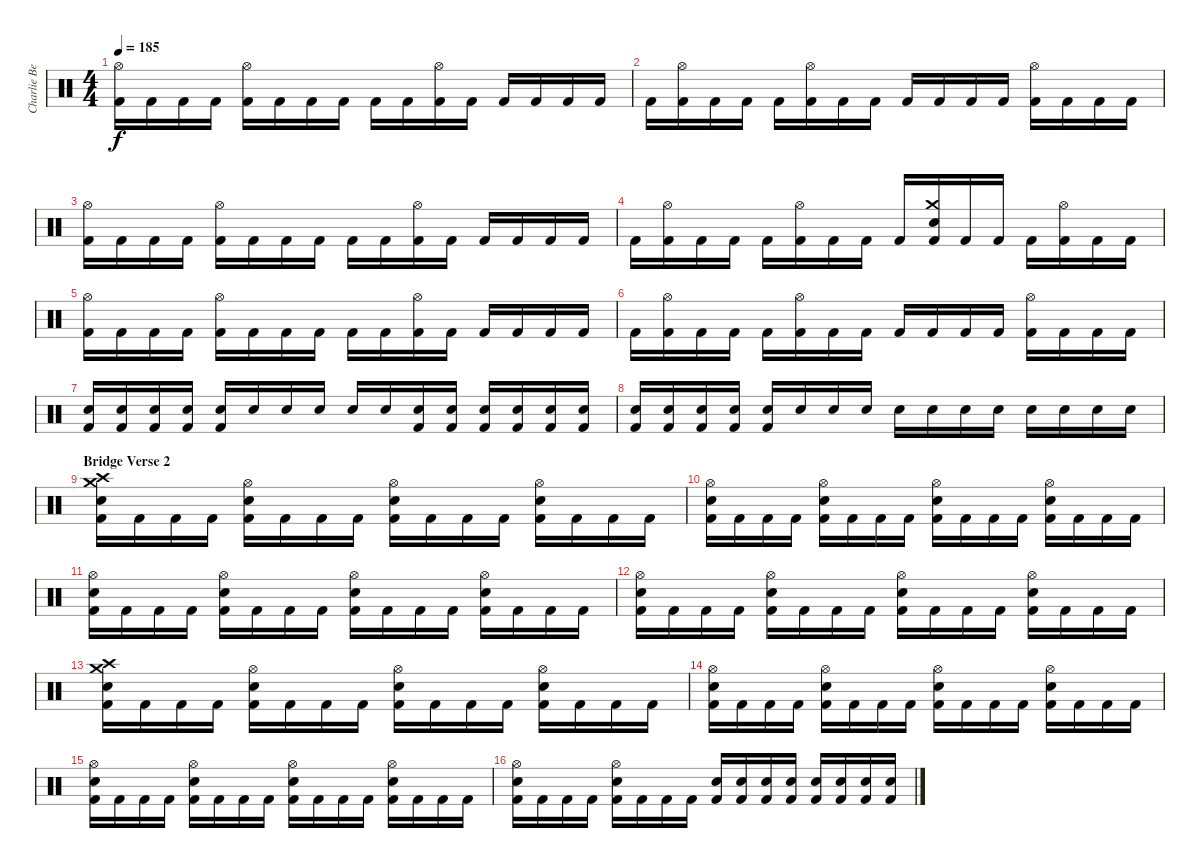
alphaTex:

\track ("Charlie Benante" "Charlie Be") {instrument percussion}
\staff {score}
\articulation defaults
\ts (4 4)
\tempo 185
\clef neutral
\ks c
("Hi-Hat (open)" "Kick (hit) 2").16{dy f} "Kick (hit) 2".16 "Kick (hit) 2".16 "Kick (hit) 2".16 ("Hi-Hat (open)" "Kick (hit) 2").16 "Kick (hit) 2".16 "Kick (hit) 2".16 "Kick (hit) 2".16 "Kick (hit) 2".16 "Kick (hit) 2".16 ("Hi-Hat (open)" "Kick (hit) 2").16 "Kick (hit) 2".16 "Kick (hit) 2".16 "Kick (hit) 2".16 "Kick (hit) 2".16 "Kick (hit) 2".16 |
"Kick (hit) 2".16 ("Hi-Hat (open)" "Kick (hit) 2").16 "Kick (hit) 2".16 "Kick (hit) 2".16 "Kick (hit) 2".16 ("Hi-Hat (open)" "Kick (hit) 2").16 "Kick (hit) 2".16 "Kick (hit) 2".16 "Kick (hit) 2".16 "Kick (hit) 2".16 "Kick (hit) 2".16 "Kick (hit) 2".16 ("Hi-Hat (open)" "Kick (hit) 2").16 "Kick (hit) 2".16 "Kick (hit) 2".16 "Kick (hit) 2".16 |
("Hi-Hat (open)" "Kick (hit) 2").16 "Kick (hit) 2".16 "Kick (hit) 2".16 "Kick (hit) 2".16 ("Hi-Hat (open)" "Kick (hit) 2").16 "Kick (hit) 2".16 "Kick (hit) 2".16 "Kick (hit) 2".16 "Kick (hit) 2".16 "Kick (hit) 2".16 ("Hi-Hat (open)" "Kick (hit) 2").16 "Kick (hit) 2".16 "Kick (hit) 2".16 "Kick (hit) 2".16 "Kick (hit) 2".16 "Kick (hit) 2".16 |
"Kick (hit) 2".16 ("Hi-Hat (open)" "Kick (hit) 2").16 "Kick (hit) 2".16 "Kick (hit) 2".16 "Kick (hit) 2".16 ("Hi-Hat (open)" "Kick (hit) 2").16 "Kick (hit) 2".16 "Kick (hit) 2".16 "Kick (hit) 2".16 ("Crash medium (hit)" "Snare (hit) 2" "Kick (hit) 2").16 "Kick (hit) 2".16 "Kick (hit) 2".16 "Kick (hit) 2".16 ("Hi-Hat (open)" "Kick (hit) 2").16 "Kick (hit) 2".16 "Kick (hit) 2".16 |
("Hi-Hat (open)" "Kick (hit) 2").16 "Kick (hit) 2".16 "Kick (hit) 2".16 "Kick (hit) 2".16 ("Hi-Hat (open)" "Kick (hit) 2").16 "Kick (hit) 2".16 "Kick (hit) 2".16 "Kick (hit) 2".16 "Kick (hit) 2".16 "Kick (hit) 2".16 ("Hi-Hat (open)" "Kick (hit) 2").16 "Kick (hit) 2".16 "Kick (hit) 2".16 "Kick (hit) 2".16 "Kick (hit) 2".16 "Kick (hit) 2".16 |
"Kick (hit) 2".16 ("Hi-Hat (open)" "Kick (hit) 2").16 "Kick (hit) 2".16 "Kick (hit) 2".16 "Kick (hit) 2".16 ("Hi-Hat (open)" "Kick (hit) 2").16 "Kick (hit) 2".16 "Kick (hit) 2".16 "Kick (hit) 2".16 "Kick (hit) 2".16 "Kick (hit) 2".16 "Kick (hit) 2".16 ("Hi-Hat (open)" "Kick (hit) 2").16 "Kick (hit) 2".16 "Kick (hit) 2".16 "Kick (hit) 2".16 |
("Snare (hit) 2" "Kick (hit) 2").16 ("Snare (hit) 2" "Kick (hit) 2").16 ("Snare (hit) 2" "Kick (hit) 2").16 ("Snare (hit) 2" "Kick (hit) 2").16 ("Snare (hit) 2" "Kick (hit) 2").16 "Snare (hit) 2".16 "Snare (hit) 2".16 "Snare (hit) 2".16 "Snare (hit) 2".16 "Snare (hit) 2".16 ("Snare (hit) 2" "Kick (hit) 2").16 ("Snare (hit) 2" "Kick (hit) 2").16 ("Snare (hit) 2" "Kick (hit) 2").16 ("Snare (hit) 2" "Kick (hit) 2").16 ("Snare (hit) 2" "Kick (hit) 2").16 ("Snare (hit) 2" "Kick (hit) 2").16 |
("Snare (hit) 2" "Kick (hit) 2").16 ("Snare (hit) 2" "Kick (hit) 2").16 ("Snare (hit) 2" "Kick (hit) 2").16 ("Snare (hit) 2" "Kick (hit) 2").16 ("Snare (hit) 2" "Kick (hit) 2").16 "Snare (hit) 2".16 "Snare (hit) 2".16 "Snare (hit) 2".16 "Snare (hit) 2".16 "Snare (hit) 2".16 "Snare (hit) 2".16 "Snare (hit) 2".16 "Snare (hit) 2".16 "Snare (hit) 2".16 "Snare (hit) 2".16 "Snare (hit) 2".16 |
\section ("" "Bridge Verse 2")
("Crash medium (hit)" "Crash high (hit)" "Snare (hit) 2" "Kick (hit) 2").16 "Kick (hit) 2".16 "Kick (hit) 2".16 "Kick (hit) 2".16 ("Hi-Hat (open)" "Snare (hit) 2" "Kick (hit) 2").16 "Kick (hit) 2".16 "Kick (hit) 2".16 "Kick (hit) 2".16 ("Hi-Hat (open)" "Snare (hit) 2" "Kick (hit) 2").16 "Kick (hit) 2".16 "Kick (hit) 2".16 "Kick (hit) 2".16 ("Hi-Hat (open)" "Snare (hit) 2" "Kick (hit) 2").16 "Kick (hit) 2".16 "Kick (hit) 2".16 "Kick (hit) 2".16 |
("Hi-Hat (open)" "Snare (hit) 2" "Kick (hit) 2").16 "Kick (hit) 2".16 "Kick (hit) 2".16 "Kick (hit) 2".16 ("Hi-Hat (open)" "Snare (hit) 2" "Kick (hit) 2").16 "Kick (hit) 2".16 "Kick (hit) 2".16 "Kick (hit) 2".16 ("Hi-Hat (open)" "Snare (hit) 2" "Kick (hit) 2").16 "Kick (hit) 2".16 "Kick (hit) 2".16 "Kick (hit) 2".16 ("Hi-Hat (open)" "Snare (hit) 2" "Kick (hit) 2").16 "Kick (hit) 2".16 "Kick (hit) 2".16 "Kick (hit) 2".16 |
("Hi-Hat (open)" "Snare (hit) 2" "Kick (hit) 2").16 "Kick (hit) 2".16 "Kick (hit) 2".16 "Kick (hit) 2".16 ("Hi-Hat (open)" "Snare (hit) 2" "Kick (hit) 2").16 "Kick (hit) 2".16 "Kick (hit) 2".16 "Kick (hit) 2".16 ("Hi-Hat (open)" "Snare (hit) 2" "Kick (hit) 2").16 "Kick (hit) 2".16 "Kick (hit) 2".16 "Kick (hit) 2".16 ("Hi-Hat (open)" "Snare (hit) 2" "Kick (hit) 2").16 "Kick (hit) 2".16 "Kick (hit) 2".16 "Kick (hit) 2".16 |
("Hi-Hat (open)" "Snare (hit) 2" "Kick (hit) 2").16 "Kick (hit) 2".16 "Kick (hit) 2".16 "Kick (hit) 2".16 ("Hi-Hat (open)" "Snare (hit) 2" "Kick (hit) 2").16 "Kick (hit) 2".16 "Kick (hit) 2".16 "Kick (hit) 2".16 ("Hi-Hat (open)" "Snare (hit) 2" "Kick (hit) 2").16 "Kick (hit) 2".16 "Kick (hit) 2".16 "Kick (hit) 2".16 ("Hi-Hat (open)" "Snare (hit) 2" "Kick (hit) 2").16 "Kick (hit) 2".16 "Kick (hit) 2".16 "Kick (hit) 2".16 |
("Crash medium (hit)" "Crash high (hit)" "Snare (hit) 2" "Kick (hit) 2").16 "Kick (hit) 2".16 "Kick (hit) 2".16 "Kick (hit) 2".16 ("Hi-Hat (open)" "Snare (hit) 2" "Kick (hit) 2").16 "Kick (hit) 2".16 "Kick (hit) 2".16 "Kick (hit) 2".16 ("Hi-Hat (open)" "Snare (hit) 2" "Kick (hit) 2").16 "Kick (hit) 2".16 "Kick (hit) 2".16 "Kick (hit) 2".16 ("Hi-Hat (open)" "Snare (hit) 2" "Kick (hit) 2").16 "Kick (hit) 2".16 "Kick (hit) 2".16 "Kick (hit) 2".16 |
("Hi-Hat (open)" "Snare (hit) 2" "Kick (hit) 2").16 "Kick (hit) 2".16 "Kick (hit) 2".16 "Kick (hit) 2".16 ("Hi-Hat (open)" "Snare (hit) 2" "Kick (hit) 2").16 "Kick (hit) 2".16 "Kick (hit) 2".16 "Kick (hit) 2".16 ("Hi-Hat (open)" "Snare (hit) 2" "Kick (hit) 2").16 "Kick (hit) 2".16 "Kick (hit) 2".16 "Kick (hit) 2".16 ("Hi-Hat (open)" "Snare (hit) 2" "Kick (hit) 2").16 "Kick (hit) 2".16 "Kick (hit) 2".16 "Kick (hit) 2".16 |
("Hi-Hat (open)" "Snare (hit) 2" "Kick (hit) 2").16 "Kick (hit) 2".16 "Kick (hit) 2".16 "Kick (hit) 2".16 ("Hi-Hat (open)" "Snare (hit) 2" "Kick (hit) 2").16 "Kick (hit) 2".16 "Kick (hit) 2".16 "Kick (hit) 2".16 ("Hi-Hat (open)" "Snare (hit) 2" "Kick (hit) 2").16 "Kick (hit) 2".16 "Kick (hit) 2".16 "Kick (hit) 2".16 ("Hi-Hat (open)" "Snare (hit) 2" "Kick (hit) 2").16 "Kick (hit) 2".16 "Kick (hit) 2".16 "Kick (hit) 2".16 |
("Hi-Hat (open)" "Snare (hit) 2" "Kick (hit) 2").16 "Kick (hit) 2".16 "Kick (hit) 2".16 "Kick (hit) 2".16 ("Hi-Hat (open)" "Snare (hit) 2" "Kick (hit) 2").16 "Kick (hit) 2".16 "Kick (hit) 2".16 "Kick (hit) 2".16 ("Snare (hit) 2" "Kick (hit) 2").16 ("Snare (hit) 2" "Kick (hit) 2").16 ("Snare (hit) 2" "Kick (hit) 2").16 ("Snare (hit) 2" "Kick (hit) 2").16 ("Snare (hit) 2" "Kick (hit) 2").16 ("Snare (hit) 2" "Kick (hit) 2").16 ("Snare (hit) 2" "Kick (hit) 2").16 ("Snare (hit) 2" "Kick (hit) 2").16
